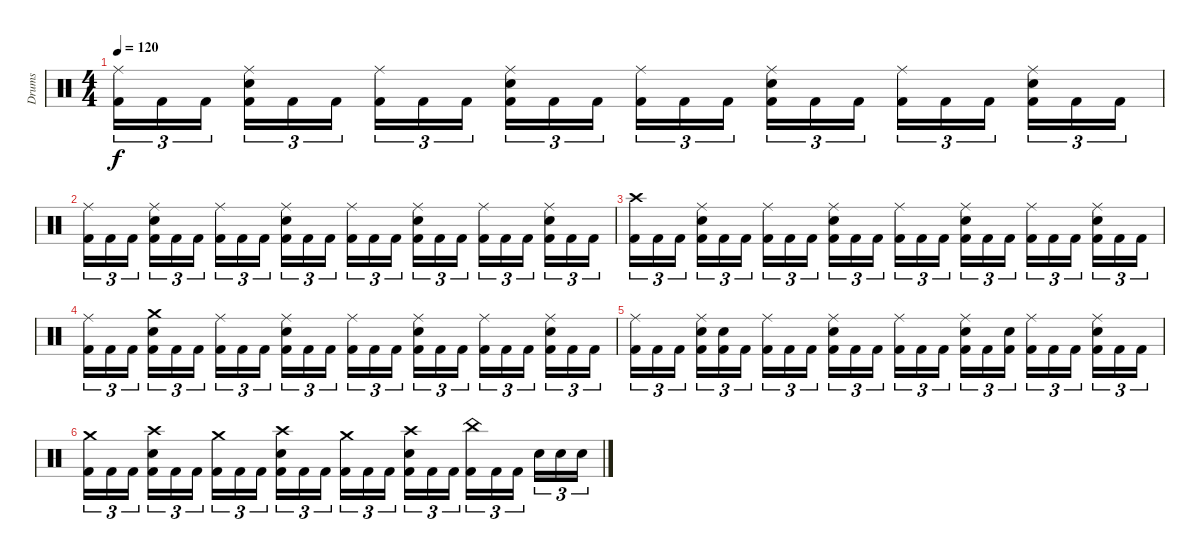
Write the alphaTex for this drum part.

\track ("Drums" "Drums") {instrument percussion}
\staff
\articulation defaults
\ts (4 4)
\tempo 120
\clef neutral
\ks c
("Ride (middle)" "Kick (hit) 2").16{tu (3 2) dy f} "Kick (hit) 2".16{tu (3 2)} "Kick (hit) 2".16{tu (3 2) beam splitsecondary} ("Ride (middle)" "Electric Snare (hit)" "Kick (hit) 2").16{tu (3 2)} "Kick (hit) 2".16{tu (3 2)} "Kick (hit) 2".16{tu (3 2)} ("Ride (middle)" "Kick (hit) 2").16{tu (3 2)} "Kick (hit) 2".16{tu (3 2)} "Kick (hit) 2".16{tu (3 2) beam splitsecondary} ("Ride (middle)" "Electric Snare (hit)" "Kick (hit) 2").16{tu (3 2)} "Kick (hit) 2".16{tu (3 2)} "Kick (hit) 2".16{tu (3 2)} ("Ride (middle)" "Kick (hit) 2").16{tu (3 2)} "Kick (hit) 2".16{tu (3 2)} "Kick (hit) 2".16{tu (3 2) beam splitsecondary} ("Ride (middle)" "Electric Snare (hit)" "Kick (hit) 2").16{tu (3 2)} "Kick (hit) 2".16{tu (3 2)} "Kick (hit) 2".16{tu (3 2)} ("Ride (middle)" "Kick (hit) 2").16{tu (3 2)} "Kick (hit) 2".16{tu (3 2)} "Kick (hit) 2".16{tu (3 2) beam splitsecondary} ("Ride (middle)" "Electric Snare (hit)" "Kick (hit) 2").16{tu (3 2)} "Kick (hit) 2".16{tu (3 2)} "Kick (hit) 2".16{tu (3 2)} |
("Ride (middle)" "Kick (hit) 2").16{tu (3 2)} "Kick (hit) 2".16{tu (3 2)} "Kick (hit) 2".16{tu (3 2) beam splitsecondary} ("Ride (middle)" "Electric Snare (hit)" "Kick (hit) 2").16{tu (3 2)} "Kick (hit) 2".16{tu (3 2)} "Kick (hit) 2".16{tu (3 2)} ("Ride (middle)" "Kick (hit) 2").16{tu (3 2)} "Kick (hit) 2".16{tu (3 2)} "Kick (hit) 2".16{tu (3 2) beam splitsecondary} ("Ride (middle)" "Electric Snare (hit)" "Kick (hit) 2").16{tu (3 2)} "Kick (hit) 2".16{tu (3 2)} "Kick (hit) 2".16{tu (3 2)} ("Ride (middle)" "Kick (hit) 2").16{tu (3 2)} "Kick (hit) 2".16{tu (3 2)} "Kick (hit) 2".16{tu (3 2) beam splitsecondary} ("Ride (middle)" "Electric Snare (hit)" "Kick (hit) 2").16{tu (3 2)} "Kick (hit) 2".16{tu (3 2)} "Kick (hit) 2".16{tu (3 2)} ("Ride (middle)" "Kick (hit) 2").16{tu (3 2)} "Kick (hit) 2".16{tu (3 2)} "Kick (hit) 2".16{tu (3 2) beam splitsecondary} ("Ride (middle)" "Electric Snare (hit)" "Kick (hit) 2").16{tu (3 2)} "Kick (hit) 2".16{tu (3 2)} "Kick (hit) 2".16{tu (3 2)} |
("Crash high (hit)" "Kick (hit) 2").16{tu (3 2)} "Kick (hit) 2".16{tu (3 2)} "Kick (hit) 2".16{tu (3 2) beam splitsecondary} ("Ride (middle)" "Electric Snare (hit)" "Kick (hit) 2").16{tu (3 2)} "Kick (hit) 2".16{tu (3 2)} "Kick (hit) 2".16{tu (3 2)} ("Ride (middle)" "Kick (hit) 2").16{tu (3 2)} "Kick (hit) 2".16{tu (3 2)} "Kick (hit) 2".16{tu (3 2) beam splitsecondary} ("Ride (middle)" "Electric Snare (hit)" "Kick (hit) 2").16{tu (3 2)} "Kick (hit) 2".16{tu (3 2)} "Kick (hit) 2".16{tu (3 2)} ("Ride (middle)" "Kick (hit) 2").16{tu (3 2)} "Kick (hit) 2".16{tu (3 2)} "Kick (hit) 2".16{tu (3 2) beam splitsecondary} ("Ride (middle)" "Electric Snare (hit)" "Kick (hit) 2").16{tu (3 2)} "Kick (hit) 2".16{tu (3 2)} "Kick (hit) 2".16{tu (3 2)} ("Ride (middle)" "Kick (hit) 2").16{tu (3 2)} "Kick (hit) 2".16{tu (3 2)} "Kick (hit) 2".16{tu (3 2) beam splitsecondary} ("Ride (middle)" "Electric Snare (hit)" "Kick (hit) 2").16{tu (3 2)} "Kick (hit) 2".16{tu (3 2)} "Kick (hit) 2".16{tu (3 2)} |
("Ride (middle)" "Kick (hit) 2").16{tu (3 2)} "Kick (hit) 2".16{tu (3 2)} "Kick (hit) 2".16{tu (3 2) beam splitsecondary} ("Crash medium (hit)" "Electric Snare (hit)" "Kick (hit) 2").16{tu (3 2)} "Kick (hit) 2".16{tu (3 2)} "Kick (hit) 2".16{tu (3 2)} ("Ride (middle)" "Kick (hit) 2").16{tu (3 2)} "Kick (hit) 2".16{tu (3 2)} "Kick (hit) 2".16{tu (3 2) beam splitsecondary} ("Ride (middle)" "Electric Snare (hit)" "Kick (hit) 2").16{tu (3 2)} "Kick (hit) 2".16{tu (3 2)} "Kick (hit) 2".16{tu (3 2)} ("Ride (middle)" "Kick (hit) 2").16{tu (3 2)} "Kick (hit) 2".16{tu (3 2)} "Kick (hit) 2".16{tu (3 2) beam splitsecondary} ("Ride (middle)" "Electric Snare (hit)" "Kick (hit) 2").16{tu (3 2)} "Kick (hit) 2".16{tu (3 2)} "Kick (hit) 2".16{tu (3 2)} ("Ride (middle)" "Kick (hit) 2").16{tu (3 2)} "Kick (hit) 2".16{tu (3 2)} "Kick (hit) 2".16{tu (3 2) beam splitsecondary} ("Ride (middle)" "Electric Snare (hit)" "Kick (hit) 2").16{tu (3 2)} "Kick (hit) 2".16{tu (3 2)} "Kick (hit) 2".16{tu (3 2)} |
("Ride (middle)" "Kick (hit) 2").16{tu (3 2)} "Kick (hit) 2".16{tu (3 2)} "Kick (hit) 2".16{tu (3 2) beam splitsecondary} ("Ride (middle)" "Electric Snare (hit)" "Kick (hit) 2").16{tu (3 2)} ("Electric Snare (hit)" "Kick (hit) 2").16{tu (3 2)} "Kick (hit) 2".16{tu (3 2)} ("Ride (middle)" "Kick (hit) 2").16{tu (3 2)} "Kick (hit) 2".16{tu (3 2)} "Kick (hit) 2".16{tu (3 2) beam splitsecondary} ("Ride (middle)" "Electric Snare (hit)" "Kick (hit) 2").16{tu (3 2)} "Kick (hit) 2".16{tu (3 2)} "Kick (hit) 2".16{tu (3 2)} ("Ride (middle)" "Kick (hit) 2").16{tu (3 2)} "Kick (hit) 2".16{tu (3 2)} "Kick (hit) 2".16{tu (3 2) beam splitsecondary} ("Ride (middle)" "Electric Snare (hit)" "Kick (hit) 2").16{tu (3 2)} "Kick (hit) 2".16{tu (3 2)} ("Electric Snare (hit)" "Kick (hit) 2").16{tu (3 2)} ("Ride (middle)" "Kick (hit) 2").16{tu (3 2)} "Kick (hit) 2".16{tu (3 2)} "Kick (hit) 2".16{tu (3 2) beam splitsecondary} ("Ride (middle)" "Electric Snare (hit)" "Kick (hit) 2").16{tu (3 2)} "Kick (hit) 2".16{tu (3 2)} "Kick (hit) 2".16{tu (3 2)} |
("Crash medium (hit)" "Kick (hit) 2").16{tu (3 2)} "Kick (hit) 2".16{tu (3 2)} "Kick (hit) 2".16{tu (3 2) beam splitsecondary} ("Crash high (hit)" "Electric Snare (hit)" "Kick (hit) 2").16{tu (3 2)} "Kick (hit) 2".16{tu (3 2)} "Kick (hit) 2".16{tu (3 2)} ("Crash medium (hit)" "Kick (hit) 2").16{tu (3 2)} "Kick (hit) 2".16{tu (3 2)} "Kick (hit) 2".16{tu (3 2) beam splitsecondary} ("Crash high (hit)" "Electric Snare (hit)" "Kick (hit) 2").16{tu (3 2)} "Kick (hit) 2".16{tu (3 2)} "Kick (hit) 2".16{tu (3 2)} ("Crash medium (hit)" "Kick (hit) 2").16{tu (3 2)} "Kick (hit) 2".16{tu (3 2)} "Kick (hit) 2".16{tu (3 2) beam splitsecondary} ("Crash high (hit)" "Electric Snare (hit)" "Kick (hit) 2").16{tu (3 2)} "Kick (hit) 2".16{tu (3 2)} "Kick (hit) 2".16{tu (3 2)} ("China (hit)" "Kick (hit) 2").16{tu (3 2)} "Kick (hit) 2".16{tu (3 2)} "Kick (hit) 2".16{tu (3 2) beam splitsecondary} "Electric Snare (hit)".16{tu (3 2)} "Electric Snare (hit)".16{tu (3 2)} "Electric Snare (hit)".16{tu (3 2)}
